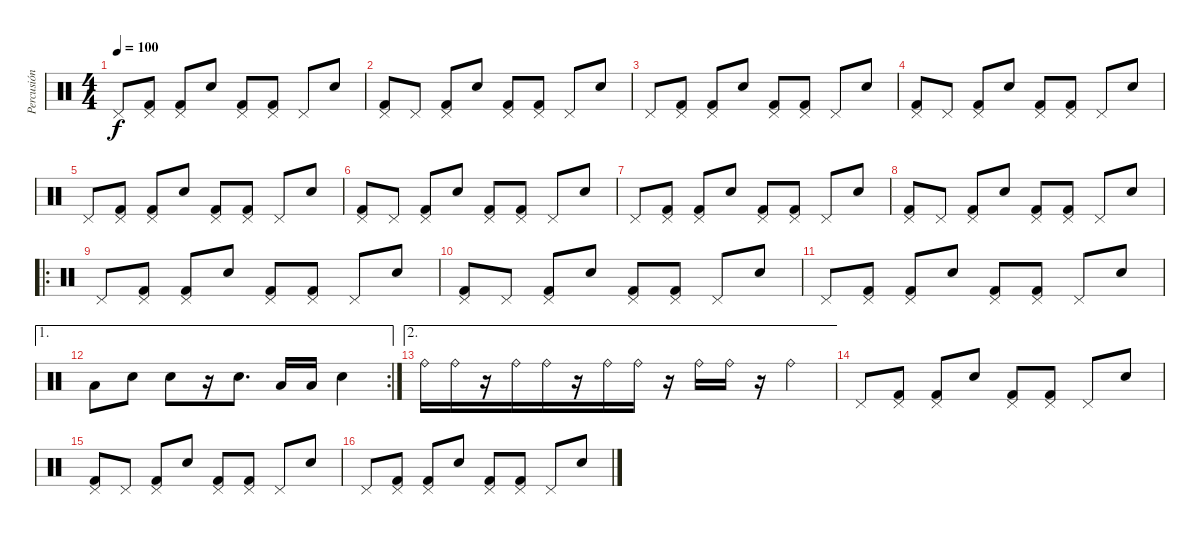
\track ("Percusión" "Percusión") {instrument percussion}
\staff {score}
\articulation defaults
\ts (4 4)
\tempo 100
\clef neutral
\ks c "Pedal Hi-Hat (hit)".8{dy f}
("Pedal Hi-Hat (hit)" "Kick (hit) 2").8 ("Pedal Hi-Hat (hit)" "Kick (hit) 2").8 "Electric Snare (hit)".8 ("Kick (hit) 2" "Pedal Hi-Hat (hit)").8 ("Pedal Hi-Hat (hit)" "Kick (hit) 2").8 "Pedal Hi-Hat (hit)".8 "Electric Snare (hit)".8 |
("Pedal Hi-Hat (hit)" "Kick (hit) 2").8 "Pedal Hi-Hat (hit)".8 ("Pedal Hi-Hat (hit)" "Kick (hit) 2").8 "Electric Snare (hit)".8 ("Kick (hit) 2" "Pedal Hi-Hat (hit)").8 ("Pedal Hi-Hat (hit)" "Kick (hit) 2").8 "Pedal Hi-Hat (hit)".8 "Electric Snare (hit)".8 |
"Pedal Hi-Hat (hit)".8 ("Pedal Hi-Hat (hit)" "Kick (hit) 2").8 ("Pedal Hi-Hat (hit)" "Kick (hit) 2").8 "Electric Snare (hit)".8 ("Kick (hit) 2" "Pedal Hi-Hat (hit)").8 ("Pedal Hi-Hat (hit)" "Kick (hit) 2").8 "Pedal Hi-Hat (hit)".8 "Electric Snare (hit)".8 |
("Pedal Hi-Hat (hit)" "Kick (hit) 2").8 "Pedal Hi-Hat (hit)".8 ("Pedal Hi-Hat (hit)" "Kick (hit) 2").8 "Electric Snare (hit)".8 ("Kick (hit) 2" "Pedal Hi-Hat (hit)").8 ("Pedal Hi-Hat (hit)" "Kick (hit) 2").8 "Pedal Hi-Hat (hit)".8 "Electric Snare (hit)".8 |
"Pedal Hi-Hat (hit)".8 ("Pedal Hi-Hat (hit)" "Kick (hit) 2").8 ("Pedal Hi-Hat (hit)" "Kick (hit) 2").8 "Electric Snare (hit)".8 ("Kick (hit) 2" "Pedal Hi-Hat (hit)").8 ("Pedal Hi-Hat (hit)" "Kick (hit) 2").8 "Pedal Hi-Hat (hit)".8 "Electric Snare (hit)".8 |
("Pedal Hi-Hat (hit)" "Kick (hit) 2").8 "Pedal Hi-Hat (hit)".8 ("Pedal Hi-Hat (hit)" "Kick (hit) 2").8 "Electric Snare (hit)".8 ("Kick (hit) 2" "Pedal Hi-Hat (hit)").8 ("Pedal Hi-Hat (hit)" "Kick (hit) 2").8 "Pedal Hi-Hat (hit)".8 "Electric Snare (hit)".8 |
"Pedal Hi-Hat (hit)".8 ("Pedal Hi-Hat (hit)" "Kick (hit) 2").8 ("Pedal Hi-Hat (hit)" "Kick (hit) 2").8 "Electric Snare (hit)".8 ("Kick (hit) 2" "Pedal Hi-Hat (hit)").8 ("Pedal Hi-Hat (hit)" "Kick (hit) 2").8 "Pedal Hi-Hat (hit)".8 "Electric Snare (hit)".8 |
("Pedal Hi-Hat (hit)" "Kick (hit) 2").8 "Pedal Hi-Hat (hit)".8 ("Pedal Hi-Hat (hit)" "Kick (hit) 2").8 "Electric Snare (hit)".8 ("Kick (hit) 2" "Pedal Hi-Hat (hit)").8 ("Pedal Hi-Hat (hit)" "Kick (hit) 2").8 "Pedal Hi-Hat (hit)".8 "Electric Snare (hit)".8 |
\ro "Pedal Hi-Hat (hit)".8
("Pedal Hi-Hat (hit)" "Kick (hit) 2").8 ("Pedal Hi-Hat (hit)" "Kick (hit) 2").8 "Electric Snare (hit)".8 ("Kick (hit) 2" "Pedal Hi-Hat (hit)").8 ("Pedal Hi-Hat (hit)" "Kick (hit) 2").8 "Pedal Hi-Hat (hit)".8 "Electric Snare (hit)".8 |
("Pedal Hi-Hat (hit)" "Kick (hit) 2").8 "Pedal Hi-Hat (hit)".8 ("Pedal Hi-Hat (hit)" "Kick (hit) 2").8 "Electric Snare (hit)".8 ("Kick (hit) 2" "Pedal Hi-Hat (hit)").8 ("Pedal Hi-Hat (hit)" "Kick (hit) 2").8 "Pedal Hi-Hat (hit)".8 "Electric Snare (hit)".8 |
"Pedal Hi-Hat (hit)".8 ("Pedal Hi-Hat (hit)" "Kick (hit) 2").8 ("Pedal Hi-Hat (hit)" "Kick (hit) 2").8 "Electric Snare (hit)".8 ("Kick (hit) 2" "Pedal Hi-Hat (hit)").8 ("Pedal Hi-Hat (hit)" "Kick (hit) 2").8 "Pedal Hi-Hat (hit)".8 "Electric Snare (hit)".8 |
\ae 1
\rc 2 "Low Floor Tom (hit)".8 "Electric Snare (hit)".8 "Electric Snare (hit)".8
r.16 "Electric Snare (hit)".8{d} "Low Floor Tom (hit)".16 "Low Floor Tom (hit)".16 "Electric Snare (hit)".4 |
\ae 2 "Ride (bell)".16{balance 0} "Ride (bell)".16
r.16 "Ride (bell)".16{balance 16 beam merge} "Ride (bell)".16 r.16 "Ride (bell)".16{balance 0} "Ride (bell)".16 r.16 "Ride (bell)".16{balance 0 beam merge} "Ride (bell)".16 r.16 "Ride (bell)".4{balance 8} |
"Pedal Hi-Hat (hit)".8 ("Pedal Hi-Hat (hit)" "Kick (hit) 2").8 ("Pedal Hi-Hat (hit)" "Kick (hit) 2").8 "Electric Snare (hit)".8 ("Kick (hit) 2" "Pedal Hi-Hat (hit)").8 ("Pedal Hi-Hat (hit)" "Kick (hit) 2").8 "Pedal Hi-Hat (hit)".8 "Electric Snare (hit)".8 |
("Pedal Hi-Hat (hit)" "Kick (hit) 2").8 "Pedal Hi-Hat (hit)".8 ("Pedal Hi-Hat (hit)" "Kick (hit) 2").8 "Electric Snare (hit)".8 ("Kick (hit) 2" "Pedal Hi-Hat (hit)").8 ("Pedal Hi-Hat (hit)" "Kick (hit) 2").8 "Pedal Hi-Hat (hit)".8 "Electric Snare (hit)".8 |
"Pedal Hi-Hat (hit)".8 ("Pedal Hi-Hat (hit)" "Kick (hit) 2").8 ("Pedal Hi-Hat (hit)" "Kick (hit) 2").8 "Electric Snare (hit)".8 ("Kick (hit) 2" "Pedal Hi-Hat (hit)").8 ("Pedal Hi-Hat (hit)" "Kick (hit) 2").8 "Pedal Hi-Hat (hit)".8 "Electric Snare (hit)".8
